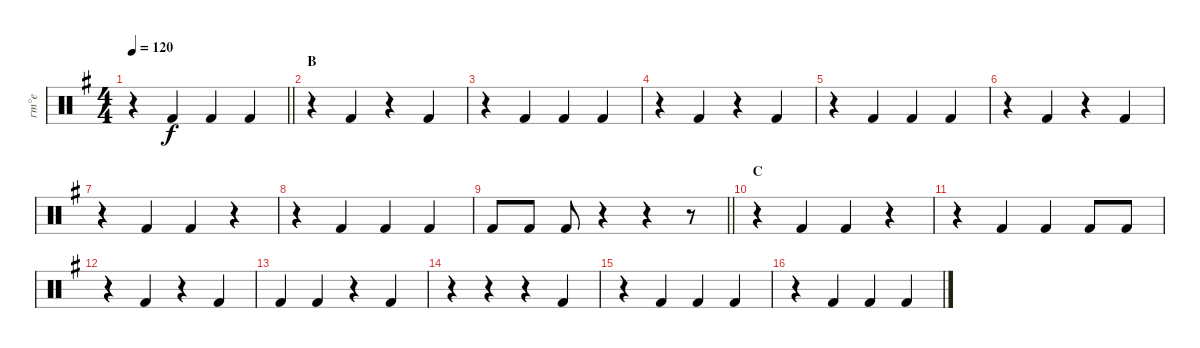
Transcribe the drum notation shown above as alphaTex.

\track ("ґт°е" "ґт°е") {instrument percussion}
\staff {score}
\articulation defaults
\ts (4 4)
\tempo 120
\clef neutral
\barLineRight lightlight
\ks g
r.4{dy f} "Kick (hit) 2".4 "Kick (hit) 2".4 "Kick (hit) 2".4 |
\section ("" "B")
r.4 "Kick (hit) 2".4 r.4 "Kick (hit) 2".4 |
r.4 "Kick (hit) 2".4 "Kick (hit) 2".4 "Kick (hit) 2".4 |
r.4 "Kick (hit) 2".4 r.4 "Kick (hit) 2".4 |
r.4 "Kick (hit) 2".4 "Kick (hit) 2".4 "Kick (hit) 2".4 |
r.4 "Kick (hit) 2".4 r.4 "Kick (hit) 2".4 |
r.4 "Kick (hit) 2".4 "Kick (hit) 2".4 r.4 |
r.4 "Kick (hit) 2".4 "Kick (hit) 2".4 "Kick (hit) 2".4 |
\barLineRight lightlight "Kick (hit) 2".8 "Kick (hit) 2".8 "Kick (hit) 2".8
r.4 r.4 r.8 |
\section ("" "C")
r.4 "Kick (hit) 2".4 "Kick (hit) 2".4 r.4 |
r.4 "Kick (hit) 2".4 "Kick (hit) 2".4 "Kick (hit) 2".8 "Kick (hit) 2".8 |
r.4 "Kick (hit) 2".4 r.4 "Kick (hit) 2".4 |
"Kick (hit) 2".4 "Kick (hit) 2".4 r.4 "Kick (hit) 2".4 |
r.4 r.4 r.4 "Kick (hit) 2".4 |
r.4 "Kick (hit) 2".4 "Kick (hit) 2".4 "Kick (hit) 2".4 |
r.4 "Kick (hit) 2".4 "Kick (hit) 2".4 "Kick (hit) 2".4
